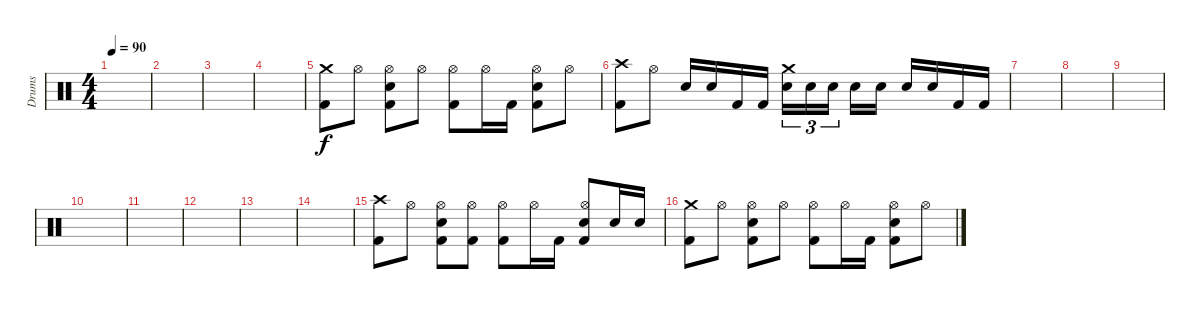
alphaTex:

\track ("Drums" "Drums") {instrument percussion}
\staff {score}
\articulation defaults
\ts (4 4)
\tempo 90
\clef neutral
\ks c
|
|
|
|
("Crash medium (hit)" "Kick (hit) 2").8 "Hi-Hat (open)".8 ("Hi-Hat (open)" "Electric Snare (hit)" "Kick (hit) 2").8 "Hi-Hat (open)".8 ("Hi-Hat (open)" "Kick (hit) 2").8 "Hi-Hat (open)".16 "Kick (hit) 2".16 ("Hi-Hat (open)" "Electric Snare (hit)" "Kick (hit) 2").8 "Hi-Hat (open)".8 |
("Crash high (hit)" "Kick (hit) 2").8 "Hi-Hat (open)".8 "Electric Snare (hit)".16 "Electric Snare (hit)".16 "Kick (hit) 2".16 "Kick (hit) 2".16 ("Crash medium (hit)" "Electric Snare (hit)").16{tu (3 2)} "Electric Snare (hit)".16{tu (3 2)} "Electric Snare (hit)".16{tu (3 2) beam splitsecondary} "Electric Snare (hit)".16 "Electric Snare (hit)".16 "Electric Snare (hit)".16 "Electric Snare (hit)".16 "Kick (hit) 2".16 "Kick (hit) 2".16 |
|
|
|
|
|
|
|
|
("Crash high (hit)" "Kick (hit) 2").8 "Hi-Hat (open)".8 ("Hi-Hat (open)" "Electric Snare (hit)" "Kick (hit) 2").8 ("Hi-Hat (open)" "Kick (hit) 2").8 ("Hi-Hat (open)" "Kick (hit) 2").8 "Hi-Hat (open)".16 "Kick (hit) 2".16 ("Hi-Hat (open)" "Electric Snare (hit)" "Kick (hit) 2").8 "Electric Snare (hit)".16 "Electric Snare (hit)".16 |
("Crash medium (hit)" "Kick (hit) 2").8 "Hi-Hat (open)".8 ("Hi-Hat (open)" "Electric Snare (hit)" "Kick (hit) 2").8 "Hi-Hat (open)".8 ("Hi-Hat (open)" "Kick (hit) 2").8 "Hi-Hat (open)".16 "Kick (hit) 2".16 ("Hi-Hat (open)" "Electric Snare (hit)" "Kick (hit) 2").8 "Hi-Hat (open)".8
